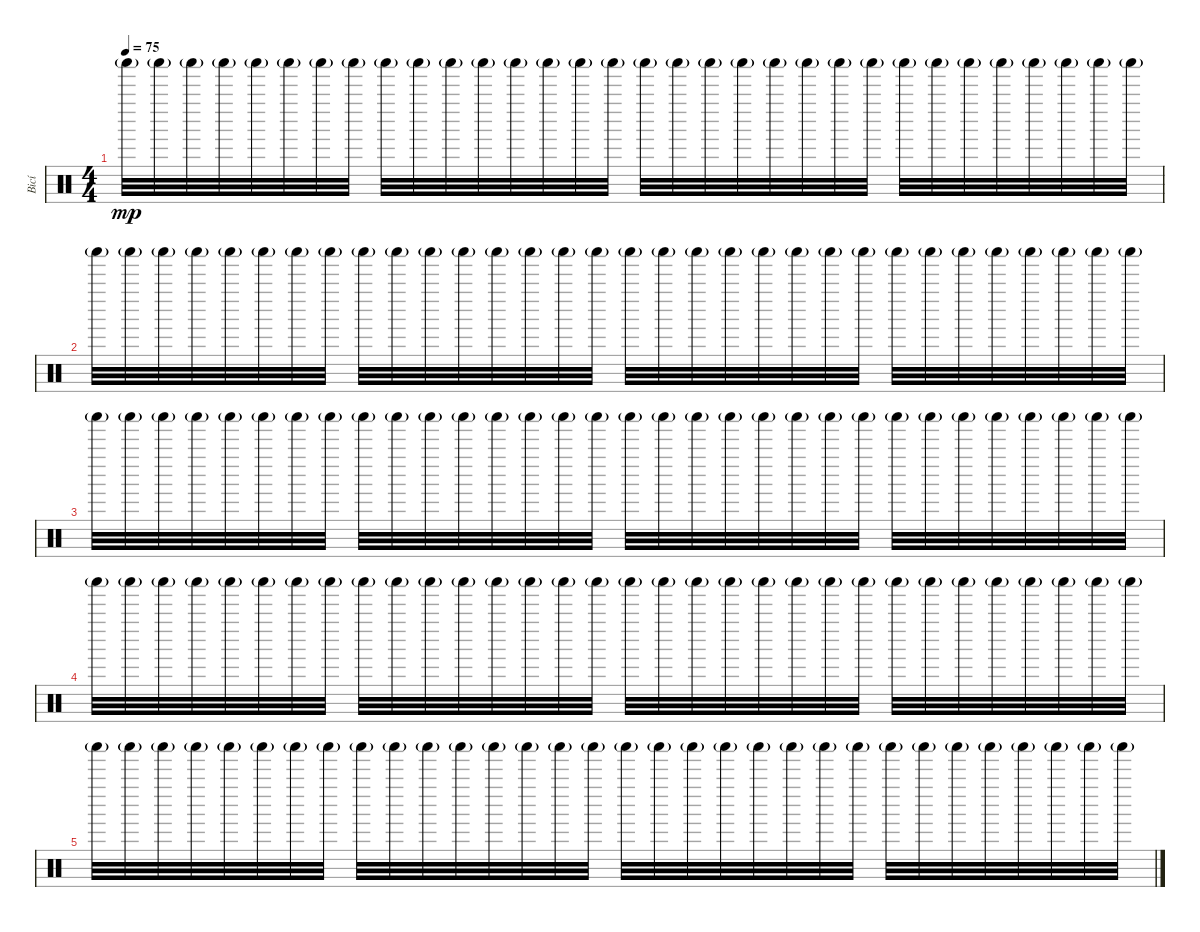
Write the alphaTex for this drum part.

\track ("Bicí" "Bicí") {instrument percussion}
\staff {score}
\articulation defaults
\ts (4 4)
\tempo 75
\clef neutral
\ks c "Shaker (hit)"{g}.32{dy mp} "Shaker (hit)"{g}.32 "Shaker (hit)"{g}.32 "Shaker (hit)"{g}.32 "Shaker (hit)"{g}.32 "Shaker (hit)"{g}.32 "Shaker (hit)"{g}.32 "Shaker (hit)"{g}.32 "Shaker (hit)"{g}.32 "Shaker (hit)"{g}.32 "Shaker (hit)"{g}.32 "Shaker (hit)"{g}.32 "Shaker (hit)"{g}.32 "Shaker (hit)"{g}.32 "Shaker (hit)"{g}.32 "Shaker (hit)"{g}.32 "Shaker (hit)"{g}.32 "Shaker (hit)"{g}.32 "Shaker (hit)"{g}.32 "Shaker (hit)"{g}.32 "Shaker (hit)"{g}.32 "Shaker (hit)"{g}.32 "Shaker (hit)"{g}.32 "Shaker (hit)"{g}.32 "Shaker (hit)"{g}.32 "Shaker (hit)"{g}.32 "Shaker (hit)"{g}.32 "Shaker (hit)"{g}.32 "Shaker (hit)"{g}.32 "Shaker (hit)"{g}.32 "Shaker (hit)"{g}.32 "Shaker (hit)"{g}.32
|
"Shaker (hit)"{g}.32 "Shaker (hit)"{g}.32 "Shaker (hit)"{g}.32 "Shaker (hit)"{g}.32 "Shaker (hit)"{g}.32 "Shaker (hit)"{g}.32 "Shaker (hit)"{g}.32 "Shaker (hit)"{g}.32 "Shaker (hit)"{g}.32 "Shaker (hit)"{g}.32 "Shaker (hit)"{g}.32 "Shaker (hit)"{g}.32 "Shaker (hit)"{g}.32 "Shaker (hit)"{g}.32 "Shaker (hit)"{g}.32 "Shaker (hit)"{g}.32 "Shaker (hit)"{g}.32 "Shaker (hit)"{g}.32 "Shaker (hit)"{g}.32 "Shaker (hit)"{g}.32 "Shaker (hit)"{g}.32 "Shaker (hit)"{g}.32 "Shaker (hit)"{g}.32 "Shaker (hit)"{g}.32 "Shaker (hit)"{g}.32 "Shaker (hit)"{g}.32 "Shaker (hit)"{g}.32 "Shaker (hit)"{g}.32 "Shaker (hit)"{g}.32 "Shaker (hit)"{g}.32 "Shaker (hit)"{g}.32 "Shaker (hit)"{g}.32 |
"Shaker (hit)"{g}.32 "Shaker (hit)"{g}.32 "Shaker (hit)"{g}.32 "Shaker (hit)"{g}.32 "Shaker (hit)"{g}.32 "Shaker (hit)"{g}.32 "Shaker (hit)"{g}.32 "Shaker (hit)"{g}.32 "Shaker (hit)"{g}.32 "Shaker (hit)"{g}.32 "Shaker (hit)"{g}.32 "Shaker (hit)"{g}.32 "Shaker (hit)"{g}.32 "Shaker (hit)"{g}.32 "Shaker (hit)"{g}.32 "Shaker (hit)"{g}.32 "Shaker (hit)"{g}.32 "Shaker (hit)"{g}.32 "Shaker (hit)"{g}.32 "Shaker (hit)"{g}.32 "Shaker (hit)"{g}.32 "Shaker (hit)"{g}.32 "Shaker (hit)"{g}.32 "Shaker (hit)"{g}.32 "Shaker (hit)"{g}.32 "Shaker (hit)"{g}.32 "Shaker (hit)"{g}.32 "Shaker (hit)"{g}.32 "Shaker (hit)"{g}.32 "Shaker (hit)"{g}.32 "Shaker (hit)"{g}.32 "Shaker (hit)"{g}.32 |
"Shaker (hit)"{g}.32 "Shaker (hit)"{g}.32 "Shaker (hit)"{g}.32 "Shaker (hit)"{g}.32 "Shaker (hit)"{g}.32 "Shaker (hit)"{g}.32 "Shaker (hit)"{g}.32 "Shaker (hit)"{g}.32 "Shaker (hit)"{g}.32 "Shaker (hit)"{g}.32 "Shaker (hit)"{g}.32 "Shaker (hit)"{g}.32 "Shaker (hit)"{g}.32 "Shaker (hit)"{g}.32 "Shaker (hit)"{g}.32 "Shaker (hit)"{g}.32 "Shaker (hit)"{g}.32 "Shaker (hit)"{g}.32 "Shaker (hit)"{g}.32 "Shaker (hit)"{g}.32 "Shaker (hit)"{g}.32 "Shaker (hit)"{g}.32 "Shaker (hit)"{g}.32 "Shaker (hit)"{g}.32 "Shaker (hit)"{g}.32 "Shaker (hit)"{g}.32 "Shaker (hit)"{g}.32 "Shaker (hit)"{g}.32 "Shaker (hit)"{g}.32 "Shaker (hit)"{g}.32 "Shaker (hit)"{g}.32 "Shaker (hit)"{g}.32 |
"Shaker (hit)"{g}.32 "Shaker (hit)"{g}.32 "Shaker (hit)"{g}.32 "Shaker (hit)"{g}.32 "Shaker (hit)"{g}.32 "Shaker (hit)"{g}.32 "Shaker (hit)"{g}.32 "Shaker (hit)"{g}.32 "Shaker (hit)"{g}.32 "Shaker (hit)"{g}.32 "Shaker (hit)"{g}.32 "Shaker (hit)"{g}.32 "Shaker (hit)"{g}.32 "Shaker (hit)"{g}.32 "Shaker (hit)"{g}.32 "Shaker (hit)"{g}.32 "Shaker (hit)"{g}.32 "Shaker (hit)"{g}.32 "Shaker (hit)"{g}.32 "Shaker (hit)"{g}.32 "Shaker (hit)"{g}.32 "Shaker (hit)"{g}.32 "Shaker (hit)"{g}.32 "Shaker (hit)"{g}.32 "Shaker (hit)"{g}.32 "Shaker (hit)"{g}.32 "Shaker (hit)"{g}.32 "Shaker (hit)"{g}.32 "Shaker (hit)"{g}.32 "Shaker (hit)"{g}.32 "Shaker (hit)"{g}.32 "Shaker (hit)"{g}.32
